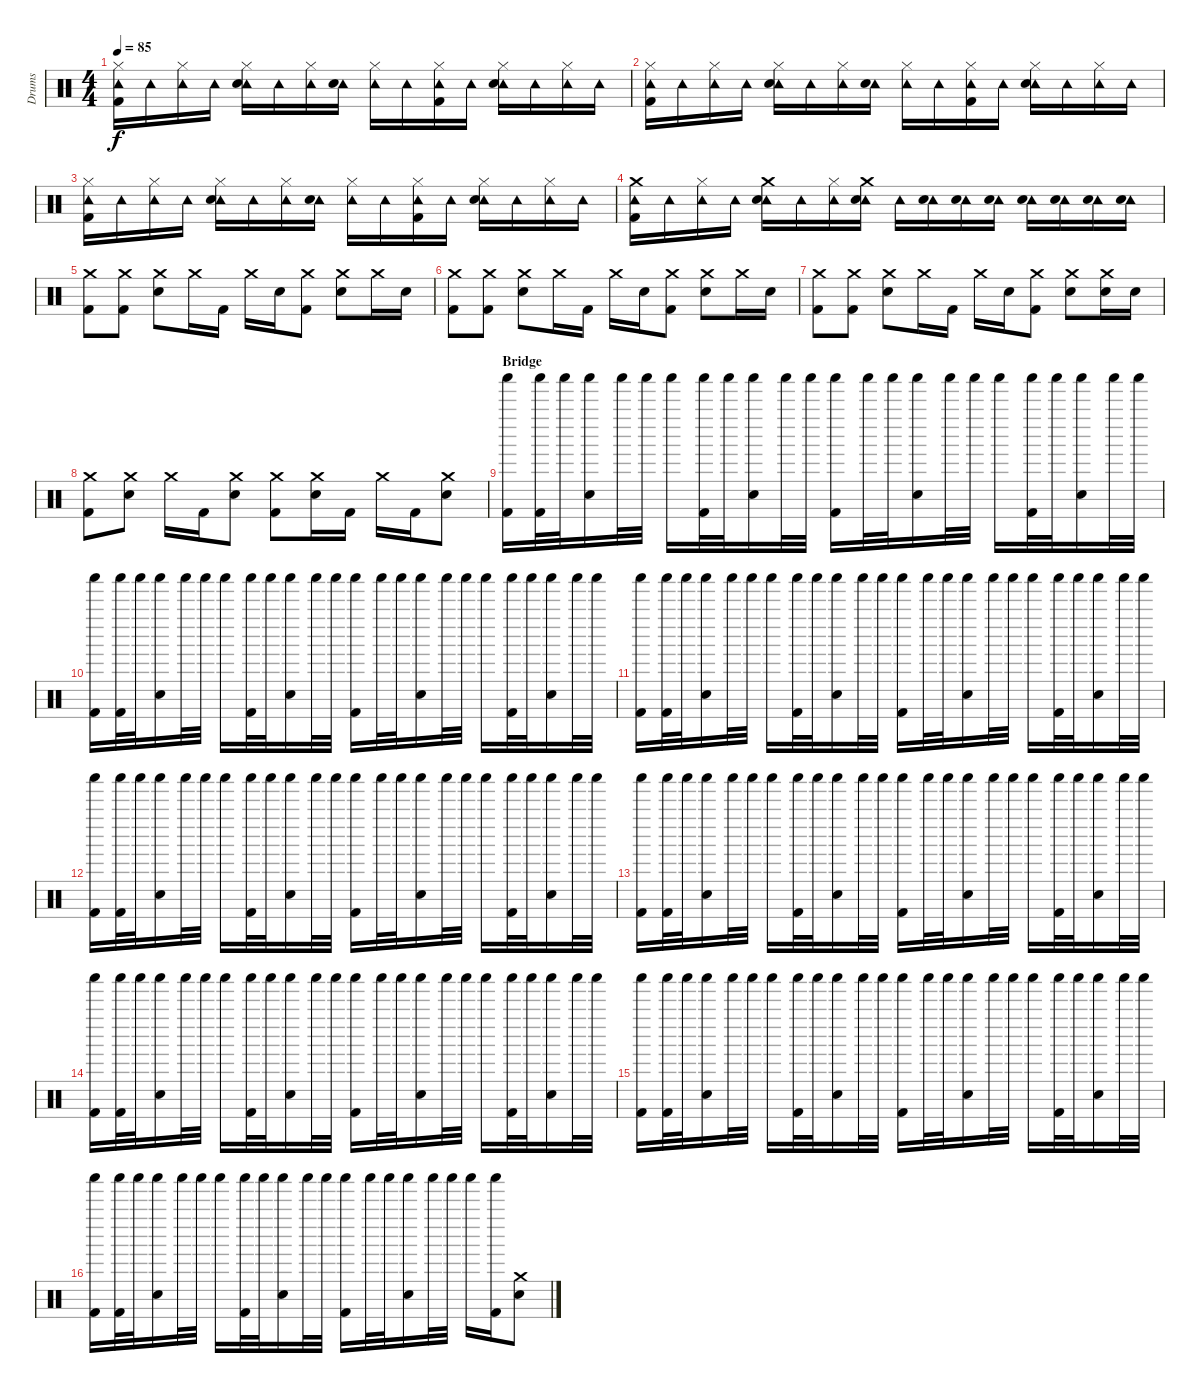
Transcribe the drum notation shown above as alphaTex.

\track ("Drums" "Drums") {instrument percussion}
\staff {score}
\articulation defaults
\ts (4 4)
\tempo 85
\clef neutral
\ks c
("Tambourine (hit)" "Hi-Hat (closed)" "Kick (hit) 2").16{dy f} "Tambourine (hit)".16 ("Tambourine (hit)" "Hi-Hat (closed)").16 "Tambourine (hit)".16 ("Tambourine (hit)" "Hi-Hat (closed)" "Snare (hit) 2").16 "Tambourine (hit)".16 ("Tambourine (hit)" "Hi-Hat (closed)").16 ("Tambourine (hit)" "Snare (hit) 2").16 ("Tambourine (hit)" "Hi-Hat (closed)").16 "Tambourine (hit)".16 ("Tambourine (hit)" "Hi-Hat (closed)" "Kick (hit) 2").16 "Tambourine (hit)".16 ("Tambourine (hit)" "Hi-Hat (closed)" "Snare (hit) 2").16 "Tambourine (hit)".16 ("Tambourine (hit)" "Hi-Hat (closed)").16 "Tambourine (hit)".16 |
("Tambourine (hit)" "Hi-Hat (closed)" "Kick (hit) 2").16 "Tambourine (hit)".16 ("Tambourine (hit)" "Hi-Hat (closed)").16 "Tambourine (hit)".16 ("Tambourine (hit)" "Hi-Hat (closed)" "Snare (hit) 2").16 "Tambourine (hit)".16 ("Tambourine (hit)" "Hi-Hat (closed)").16 ("Tambourine (hit)" "Snare (hit) 2").16 ("Tambourine (hit)" "Hi-Hat (closed)").16 "Tambourine (hit)".16 ("Tambourine (hit)" "Hi-Hat (closed)" "Kick (hit) 2").16 "Tambourine (hit)".16 ("Tambourine (hit)" "Hi-Hat (closed)" "Snare (hit) 2").16 "Tambourine (hit)".16 ("Tambourine (hit)" "Hi-Hat (closed)").16 "Tambourine (hit)".16 |
("Tambourine (hit)" "Hi-Hat (closed)" "Kick (hit) 2").16 "Tambourine (hit)".16 ("Tambourine (hit)" "Hi-Hat (closed)").16 "Tambourine (hit)".16 ("Tambourine (hit)" "Hi-Hat (closed)" "Snare (hit) 2").16 "Tambourine (hit)".16 ("Tambourine (hit)" "Hi-Hat (closed)").16 ("Tambourine (hit)" "Snare (hit) 2").16 ("Tambourine (hit)" "Hi-Hat (closed)").16 "Tambourine (hit)".16 ("Tambourine (hit)" "Hi-Hat (closed)" "Kick (hit) 2").16 "Tambourine (hit)".16 ("Tambourine (hit)" "Hi-Hat (closed)" "Snare (hit) 2").16 "Tambourine (hit)".16 ("Tambourine (hit)" "Hi-Hat (closed)").16 "Tambourine (hit)".16 |
("Tambourine (hit)" "Crash medium (hit)" "Kick (hit) 2").16 "Tambourine (hit)".16 ("Tambourine (hit)" "Hi-Hat (closed)").16 "Tambourine (hit)".16 ("Tambourine (hit)" "Crash medium (hit)" "Snare (hit) 2").16 "Tambourine (hit)".16 ("Tambourine (hit)" "Hi-Hat (closed)").16 ("Tambourine (hit)" "Crash medium (hit)" "Snare (hit) 2").16 "Tambourine (hit)".16 ("Tambourine (hit)" "Snare (hit) 2").16 ("Tambourine (hit)" "Snare (hit) 2").16 ("Tambourine (hit)" "Snare (hit) 2").16 ("Tambourine (hit)" "Snare (hit) 2").16 ("Tambourine (hit)" "Snare (hit) 2").16 ("Tambourine (hit)" "Snare (hit) 2").16 ("Tambourine (hit)" "Snare (hit) 2").16 |
("Crash medium (hit)" "Kick (hit) 2").8 ("Crash medium (hit)" "Kick (hit) 2").8 ("Crash medium (hit)" "Snare (hit) 2").8 "Crash medium (hit)".16 "Kick (hit) 2".16 "Crash medium (hit)".16 "Snare (hit) 2".16 ("Crash medium (hit)" "Kick (hit) 2").8 ("Crash medium (hit)" "Snare (hit) 2").8 "Crash medium (hit)".16 "Snare (hit) 2".16 |
("Crash medium (hit)" "Kick (hit) 2").8 ("Crash medium (hit)" "Kick (hit) 2").8 ("Crash medium (hit)" "Snare (hit) 2").8 "Crash medium (hit)".16 "Kick (hit) 2".16 "Crash medium (hit)".16 "Snare (hit) 2".16 ("Crash medium (hit)" "Kick (hit) 2").8 ("Crash medium (hit)" "Snare (hit) 2").8 "Crash medium (hit)".16 "Snare (hit) 2".16 |
("Crash medium (hit)" "Kick (hit) 2").8 ("Crash medium (hit)" "Kick (hit) 2").8 ("Crash medium (hit)" "Snare (hit) 2").8 "Crash medium (hit)".16 "Kick (hit) 2".16 "Crash medium (hit)".16 "Snare (hit) 2".16 ("Crash medium (hit)" "Kick (hit) 2").8 ("Crash medium (hit)" "Snare (hit) 2").8 ("Crash medium (hit)" "Snare (hit) 2").16 "Snare (hit) 2".16 |
("Crash medium (hit)" "Kick (hit) 2").8 ("Crash medium (hit)" "Snare (hit) 2").8 "Crash medium (hit)".16 "Kick (hit) 2".16 ("Crash medium (hit)" "Snare (hit) 2").8 ("Crash medium (hit)" "Kick (hit) 2").8 ("Crash medium (hit)" "Snare (hit) 2").16 "Kick (hit) 2".16 "Crash medium (hit)".16 "Kick (hit) 2".16 ("Crash medium (hit)" "Snare (hit) 2").8 |
\section ("" "Bridge")
("Shaker (hit)" "Kick (hit) 2").16 ("Shaker (hit)" "Kick (hit) 2").32 "Shaker (hit)".32 ("Shaker (hit)" "Snare (hit) 2").16 "Shaker (hit)".32 "Shaker (hit)".32 "Shaker (hit)".16 ("Shaker (hit)" "Kick (hit) 2").32 "Shaker (hit)".32 ("Shaker (hit)" "Snare (hit) 2").16 "Shaker (hit)".32 "Shaker (hit)".32 ("Shaker (hit)" "Kick (hit) 2").16 "Shaker (hit)".32 "Shaker (hit)".32 ("Shaker (hit)" "Snare (hit) 2").16 "Shaker (hit)".32 "Shaker (hit)".32 "Shaker (hit)".16 ("Shaker (hit)" "Kick (hit) 2").32 "Shaker (hit)".32 ("Shaker (hit)" "Snare (hit) 2").16 "Shaker (hit)".32 "Shaker (hit)".32 |
("Shaker (hit)" "Kick (hit) 2").16 ("Shaker (hit)" "Kick (hit) 2").32 "Shaker (hit)".32 ("Shaker (hit)" "Snare (hit) 2").16 "Shaker (hit)".32 "Shaker (hit)".32 "Shaker (hit)".16 ("Shaker (hit)" "Kick (hit) 2").32 "Shaker (hit)".32 ("Shaker (hit)" "Snare (hit) 2").16 "Shaker (hit)".32 "Shaker (hit)".32 ("Shaker (hit)" "Kick (hit) 2").16 "Shaker (hit)".32 "Shaker (hit)".32 ("Shaker (hit)" "Snare (hit) 2").16 "Shaker (hit)".32 "Shaker (hit)".32 "Shaker (hit)".16 ("Shaker (hit)" "Kick (hit) 2").32 "Shaker (hit)".32 ("Shaker (hit)" "Snare (hit) 2").16 "Shaker (hit)".32 "Shaker (hit)".32 |
("Shaker (hit)" "Kick (hit) 2").16 ("Shaker (hit)" "Kick (hit) 2").32 "Shaker (hit)".32 ("Shaker (hit)" "Snare (hit) 2").16 "Shaker (hit)".32 "Shaker (hit)".32 "Shaker (hit)".16 ("Shaker (hit)" "Kick (hit) 2").32 "Shaker (hit)".32 ("Shaker (hit)" "Snare (hit) 2").16 "Shaker (hit)".32 "Shaker (hit)".32 ("Shaker (hit)" "Kick (hit) 2").16 "Shaker (hit)".32 "Shaker (hit)".32 ("Shaker (hit)" "Snare (hit) 2").16 "Shaker (hit)".32 "Shaker (hit)".32 "Shaker (hit)".16 ("Shaker (hit)" "Kick (hit) 2").32 "Shaker (hit)".32 ("Shaker (hit)" "Snare (hit) 2").16 "Shaker (hit)".32 "Shaker (hit)".32 |
("Shaker (hit)" "Kick (hit) 2").16 ("Shaker (hit)" "Kick (hit) 2").32 "Shaker (hit)".32 ("Shaker (hit)" "Snare (hit) 2").16 "Shaker (hit)".32 "Shaker (hit)".32 "Shaker (hit)".16 ("Shaker (hit)" "Kick (hit) 2").32 "Shaker (hit)".32 ("Shaker (hit)" "Snare (hit) 2").16 "Shaker (hit)".32 "Shaker (hit)".32 ("Shaker (hit)" "Kick (hit) 2").16 "Shaker (hit)".32 "Shaker (hit)".32 ("Shaker (hit)" "Snare (hit) 2").16 "Shaker (hit)".32 "Shaker (hit)".32 "Shaker (hit)".16 ("Shaker (hit)" "Kick (hit) 2").32 "Shaker (hit)".32 ("Shaker (hit)" "Snare (hit) 2").16 "Shaker (hit)".32 "Shaker (hit)".32 |
("Shaker (hit)" "Kick (hit) 2").16 ("Shaker (hit)" "Kick (hit) 2").32 "Shaker (hit)".32 ("Shaker (hit)" "Snare (hit) 2").16 "Shaker (hit)".32 "Shaker (hit)".32 "Shaker (hit)".16 ("Shaker (hit)" "Kick (hit) 2").32 "Shaker (hit)".32 ("Shaker (hit)" "Snare (hit) 2").16 "Shaker (hit)".32 "Shaker (hit)".32 ("Shaker (hit)" "Kick (hit) 2").16 "Shaker (hit)".32 "Shaker (hit)".32 ("Shaker (hit)" "Snare (hit) 2").16 "Shaker (hit)".32 "Shaker (hit)".32 "Shaker (hit)".16 ("Shaker (hit)" "Kick (hit) 2").32 "Shaker (hit)".32 ("Shaker (hit)" "Snare (hit) 2").16 "Shaker (hit)".32 "Shaker (hit)".32 |
("Shaker (hit)" "Kick (hit) 2").16 ("Shaker (hit)" "Kick (hit) 2").32 "Shaker (hit)".32 ("Shaker (hit)" "Snare (hit) 2").16 "Shaker (hit)".32 "Shaker (hit)".32 "Shaker (hit)".16 ("Shaker (hit)" "Kick (hit) 2").32 "Shaker (hit)".32 ("Shaker (hit)" "Snare (hit) 2").16 "Shaker (hit)".32 "Shaker (hit)".32 ("Shaker (hit)" "Kick (hit) 2").16 "Shaker (hit)".32 "Shaker (hit)".32 ("Shaker (hit)" "Snare (hit) 2").16 "Shaker (hit)".32 "Shaker (hit)".32 "Shaker (hit)".16 ("Shaker (hit)" "Kick (hit) 2").32 "Shaker (hit)".32 ("Shaker (hit)" "Snare (hit) 2").16 "Shaker (hit)".32 "Shaker (hit)".32 |
("Shaker (hit)" "Kick (hit) 2").16 ("Shaker (hit)" "Kick (hit) 2").32 "Shaker (hit)".32 ("Shaker (hit)" "Snare (hit) 2").16 "Shaker (hit)".32 "Shaker (hit)".32 "Shaker (hit)".16 ("Shaker (hit)" "Kick (hit) 2").32 "Shaker (hit)".32 ("Shaker (hit)" "Snare (hit) 2").16 "Shaker (hit)".32 "Shaker (hit)".32 ("Shaker (hit)" "Kick (hit) 2").16 "Shaker (hit)".32 "Shaker (hit)".32 ("Shaker (hit)" "Snare (hit) 2").16 "Shaker (hit)".32 "Shaker (hit)".32 "Shaker (hit)".16 ("Shaker (hit)" "Kick (hit) 2").32 "Shaker (hit)".32 ("Shaker (hit)" "Snare (hit) 2").16 "Shaker (hit)".32 "Shaker (hit)".32 |
("Shaker (hit)" "Kick (hit) 2").16 ("Shaker (hit)" "Kick (hit) 2").32 "Shaker (hit)".32 ("Shaker (hit)" "Snare (hit) 2").16 "Shaker (hit)".32 "Shaker (hit)".32 "Shaker (hit)".16 ("Shaker (hit)" "Kick (hit) 2").32 "Shaker (hit)".32 ("Shaker (hit)" "Snare (hit) 2").16 "Shaker (hit)".32 "Shaker (hit)".32 ("Shaker (hit)" "Kick (hit) 2").16 "Shaker (hit)".32 "Shaker (hit)".32 ("Shaker (hit)" "Snare (hit) 2").16 "Shaker (hit)".32 "Shaker (hit)".32 "Shaker (hit)".16 ("Shaker (hit)" "Kick (hit) 2").16 ("Crash medium (hit)" "Snare (hit) 2").8
